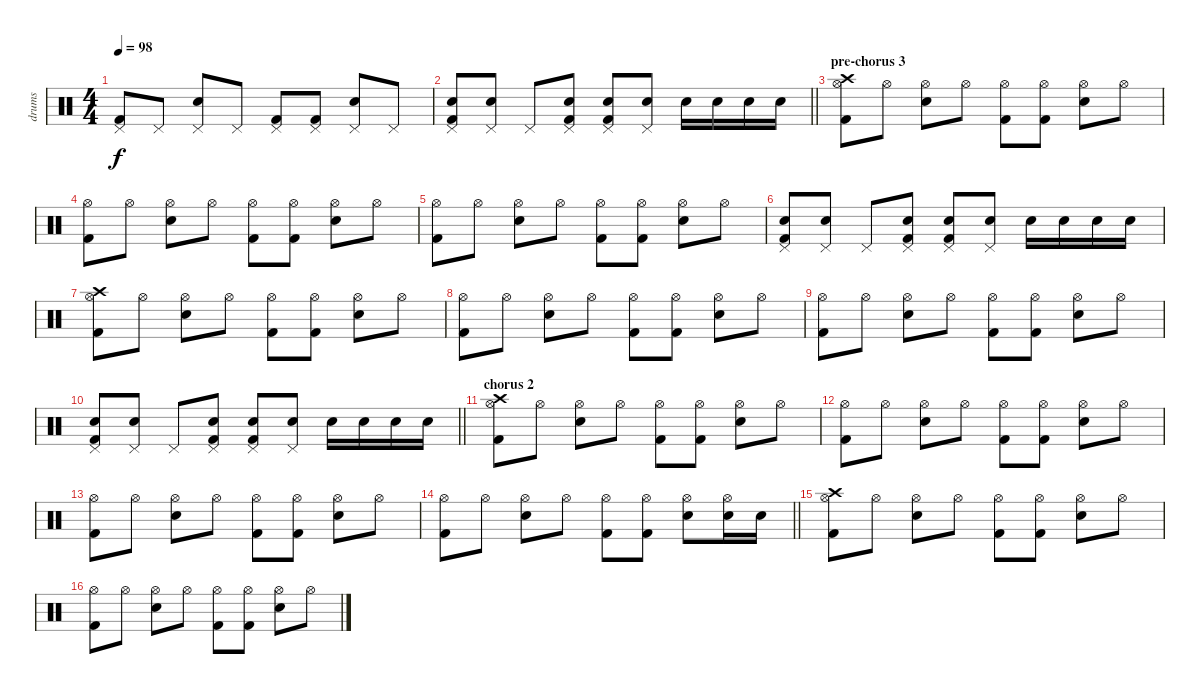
\track ("drums" "drums") {instrument percussion}
\staff {score}
\articulation defaults
\ts (4 4)
\tempo 98
\clef neutral
\ks c
("Kick (hit) 2" "Pedal Hi-Hat (hit)").8{dy f} "Pedal Hi-Hat (hit)".8 ("Electric Snare (hit)" "Pedal Hi-Hat (hit)").8 "Pedal Hi-Hat (hit)".8 ("Kick (hit) 2" "Pedal Hi-Hat (hit)").8 ("Kick (hit) 2" "Pedal Hi-Hat (hit)").8 ("Electric Snare (hit)" "Pedal Hi-Hat (hit)").8 "Pedal Hi-Hat (hit)".8 |
\barLineRight lightlight
("Kick (hit) 2" "Electric Snare (hit)" "Pedal Hi-Hat (hit)").8 ("Electric Snare (hit)" "Pedal Hi-Hat (hit)").8 "Pedal Hi-Hat (hit)".8 ("Kick (hit) 2" "Electric Snare (hit)" "Pedal Hi-Hat (hit)").8 ("Kick (hit) 2" "Electric Snare (hit)" "Pedal Hi-Hat (hit)").8 ("Electric Snare (hit)" "Pedal Hi-Hat (hit)").8 "Electric Snare (hit)".16 "Electric Snare (hit)".16 "Electric Snare (hit)".16 "Electric Snare (hit)".16 |
\section ("" "pre-chorus 3")
("Kick (hit) 2" "Hi-Hat (open)" "Crash high (hit)").8 "Hi-Hat (open)".8 ("Electric Snare (hit)" "Hi-Hat (open)").8 "Hi-Hat (open)".8 ("Kick (hit) 2" "Hi-Hat (open)").8 ("Kick (hit) 2" "Hi-Hat (open)").8 ("Electric Snare (hit)" "Hi-Hat (open)").8 "Hi-Hat (open)".8 |
("Kick (hit) 2" "Hi-Hat (open)").8 "Hi-Hat (open)".8 ("Electric Snare (hit)" "Hi-Hat (open)").8 "Hi-Hat (open)".8 ("Kick (hit) 2" "Hi-Hat (open)").8 ("Kick (hit) 2" "Hi-Hat (open)").8 ("Electric Snare (hit)" "Hi-Hat (open)").8 "Hi-Hat (open)".8 |
("Kick (hit) 2" "Hi-Hat (open)").8 "Hi-Hat (open)".8 ("Electric Snare (hit)" "Hi-Hat (open)").8 "Hi-Hat (open)".8 ("Kick (hit) 2" "Hi-Hat (open)").8 ("Kick (hit) 2" "Hi-Hat (open)").8 ("Electric Snare (hit)" "Hi-Hat (open)").8 "Hi-Hat (open)".8 |
("Kick (hit) 2" "Electric Snare (hit)" "Pedal Hi-Hat (hit)").8 ("Electric Snare (hit)" "Pedal Hi-Hat (hit)").8 "Pedal Hi-Hat (hit)".8 ("Kick (hit) 2" "Electric Snare (hit)" "Pedal Hi-Hat (hit)").8 ("Kick (hit) 2" "Electric Snare (hit)" "Pedal Hi-Hat (hit)").8 ("Electric Snare (hit)" "Pedal Hi-Hat (hit)").8 "Electric Snare (hit)".16 "Electric Snare (hit)".16 "Electric Snare (hit)".16 "Electric Snare (hit)".16 |
("Kick (hit) 2" "Hi-Hat (open)" "Crash high (hit)").8 "Hi-Hat (open)".8 ("Electric Snare (hit)" "Hi-Hat (open)").8 "Hi-Hat (open)".8 ("Kick (hit) 2" "Hi-Hat (open)").8 ("Kick (hit) 2" "Hi-Hat (open)").8 ("Electric Snare (hit)" "Hi-Hat (open)").8 "Hi-Hat (open)".8 |
("Kick (hit) 2" "Hi-Hat (open)").8 "Hi-Hat (open)".8 ("Electric Snare (hit)" "Hi-Hat (open)").8 "Hi-Hat (open)".8 ("Kick (hit) 2" "Hi-Hat (open)").8 ("Kick (hit) 2" "Hi-Hat (open)").8 ("Electric Snare (hit)" "Hi-Hat (open)").8 "Hi-Hat (open)".8 |
("Kick (hit) 2" "Hi-Hat (open)").8 "Hi-Hat (open)".8 ("Electric Snare (hit)" "Hi-Hat (open)").8 "Hi-Hat (open)".8 ("Kick (hit) 2" "Hi-Hat (open)").8 ("Kick (hit) 2" "Hi-Hat (open)").8 ("Electric Snare (hit)" "Hi-Hat (open)").8 "Hi-Hat (open)".8 |
\barLineRight lightlight
("Kick (hit) 2" "Electric Snare (hit)" "Pedal Hi-Hat (hit)").8 ("Electric Snare (hit)" "Pedal Hi-Hat (hit)").8 "Pedal Hi-Hat (hit)".8 ("Kick (hit) 2" "Electric Snare (hit)" "Pedal Hi-Hat (hit)").8 ("Kick (hit) 2" "Electric Snare (hit)" "Pedal Hi-Hat (hit)").8 ("Electric Snare (hit)" "Pedal Hi-Hat (hit)").8 "Electric Snare (hit)".16 "Electric Snare (hit)".16 "Electric Snare (hit)".16 "Electric Snare (hit)".16 |
\section ("" "chorus 2")
("Kick (hit) 2" "Hi-Hat (open)" "Crash high (hit)").8 "Hi-Hat (open)".8 ("Electric Snare (hit)" "Hi-Hat (open)").8 "Hi-Hat (open)".8 ("Kick (hit) 2" "Hi-Hat (open)").8 ("Kick (hit) 2" "Hi-Hat (open)").8 ("Electric Snare (hit)" "Hi-Hat (open)").8 "Hi-Hat (open)".8 |
("Kick (hit) 2" "Hi-Hat (open)").8 "Hi-Hat (open)".8 ("Electric Snare (hit)" "Hi-Hat (open)").8 "Hi-Hat (open)".8 ("Kick (hit) 2" "Hi-Hat (open)").8 ("Kick (hit) 2" "Hi-Hat (open)").8 ("Electric Snare (hit)" "Hi-Hat (open)").8 "Hi-Hat (open)".8 |
("Kick (hit) 2" "Hi-Hat (open)").8 "Hi-Hat (open)".8 ("Electric Snare (hit)" "Hi-Hat (open)").8 "Hi-Hat (open)".8 ("Kick (hit) 2" "Hi-Hat (open)").8 ("Kick (hit) 2" "Hi-Hat (open)").8 ("Electric Snare (hit)" "Hi-Hat (open)").8 "Hi-Hat (open)".8 |
\barLineRight lightlight
("Kick (hit) 2" "Hi-Hat (open)").8 "Hi-Hat (open)".8 ("Electric Snare (hit)" "Hi-Hat (open)").8 "Hi-Hat (open)".8 ("Kick (hit) 2" "Hi-Hat (open)").8 ("Kick (hit) 2" "Hi-Hat (open)").8 ("Electric Snare (hit)" "Hi-Hat (open)").8 ("Electric Snare (hit)" "Hi-Hat (open)").16 "Electric Snare (hit)".16 |
("Kick (hit) 2" "Hi-Hat (open)" "Crash high (hit)").8 "Hi-Hat (open)".8 ("Electric Snare (hit)" "Hi-Hat (open)").8 "Hi-Hat (open)".8 ("Kick (hit) 2" "Hi-Hat (open)").8 ("Kick (hit) 2" "Hi-Hat (open)").8 ("Electric Snare (hit)" "Hi-Hat (open)").8 "Hi-Hat (open)".8 |
("Kick (hit) 2" "Hi-Hat (open)").8 "Hi-Hat (open)".8 ("Electric Snare (hit)" "Hi-Hat (open)").8 "Hi-Hat (open)".8 ("Kick (hit) 2" "Hi-Hat (open)").8 ("Kick (hit) 2" "Hi-Hat (open)").8 ("Electric Snare (hit)" "Hi-Hat (open)").8 "Hi-Hat (open)".8
